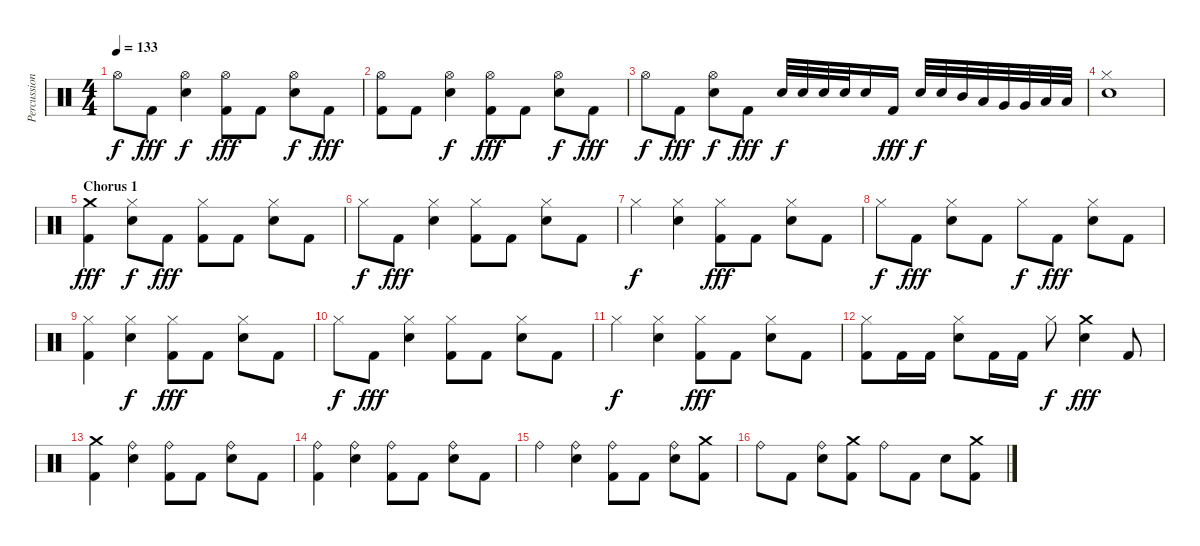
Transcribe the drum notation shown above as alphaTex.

\track ("Percussion" "Percussion") {instrument percussion}
\staff {score}
\articulation defaults
\ts (4 4)
\tempo 133
\clef neutral
\ks c "Hi-Hat (open)".8{dy f} "Kick (hit) 2".8{dy fff}
("Hi-Hat (open)" "Electric Snare (hit)").4{dy f} ("Hi-Hat (open)" "Kick (hit) 2").8{dy fff} "Kick (hit) 2".8 ("Hi-Hat (open)" "Electric Snare (hit)").8{dy f} "Kick (hit) 2".8{dy fff} |
("Hi-Hat (open)" "Kick (hit) 2").8 "Kick (hit) 2".8 ("Hi-Hat (open)" "Electric Snare (hit)").4{dy f} ("Hi-Hat (open)" "Kick (hit) 2").8{dy fff} "Kick (hit) 2".8 ("Hi-Hat (open)" "Electric Snare (hit)").8{dy f} "Kick (hit) 2".8{dy fff} |
"Hi-Hat (open)".8{dy f} "Kick (hit) 2".8{dy fff} ("Hi-Hat (open)" "Electric Snare (hit)").8{dy f} "Kick (hit) 2".8{dy fff} "Electric Snare (hit)".32{dy f} "Electric Snare (hit)".32 "Electric Snare (hit)".32 "Electric Snare (hit)".32 "Electric Snare (hit)".16 "Kick (hit) 2".16{dy fff} "Electric Snare (hit)".32{dy f} "Electric Snare (hit)".32 "Mid Tom (hit)".32 "Low Tom (hit)".32 "Very Low Tom (hit)".32 "Very Low Tom (hit)".32 "Low Floor Tom (hit)".32 "Low Floor Tom (hit)".32 |
("Hi-Hat (closed)" "Electric Snare (hit)").1 |
\section ("" "Chorus 1")
("Crash medium (hit)" "Kick (hit) 2").4{dy fff} ("Hi-Hat (closed)" "Electric Snare (hit)").8{dy f} "Kick (hit) 2".8{dy fff} ("Hi-Hat (closed)" "Kick (hit) 2").8 "Kick (hit) 2".8 ("Hi-Hat (closed)" "Electric Snare (hit)").8 "Kick (hit) 2".8 |
"Hi-Hat (closed)".8{dy f} "Kick (hit) 2".8{dy fff} ("Hi-Hat (closed)" "Electric Snare (hit)").4 ("Hi-Hat (closed)" "Kick (hit) 2").8 "Kick (hit) 2".8 ("Hi-Hat (closed)" "Electric Snare (hit)").8 "Kick (hit) 2".8 |
"Hi-Hat (closed)".4{dy f} ("Hi-Hat (closed)" "Electric Snare (hit)").4 ("Hi-Hat (closed)" "Kick (hit) 2").8{dy fff} "Kick (hit) 2".8 ("Hi-Hat (closed)" "Electric Snare (hit)").8 "Kick (hit) 2".8 |
"Hi-Hat (closed)".8{dy f} "Kick (hit) 2".8{dy fff} ("Hi-Hat (closed)" "Electric Snare (hit)").8 "Kick (hit) 2".8 "Hi-Hat (closed)".8{dy f} "Kick (hit) 2".8{dy fff} ("Hi-Hat (closed)" "Electric Snare (hit)").8 "Kick (hit) 2".8 |
("Hi-Hat (closed)" "Kick (hit) 2").4 ("Hi-Hat (closed)" "Electric Snare (hit)").4{dy f} ("Hi-Hat (closed)" "Kick (hit) 2").8{dy fff} "Kick (hit) 2".8 ("Hi-Hat (closed)" "Electric Snare (hit)").8 "Kick (hit) 2".8 |
"Hi-Hat (closed)".8{dy f} "Kick (hit) 2".8{dy fff} ("Hi-Hat (closed)" "Electric Snare (hit)").4 ("Hi-Hat (closed)" "Kick (hit) 2").8 "Kick (hit) 2".8 ("Hi-Hat (closed)" "Electric Snare (hit)").8 "Kick (hit) 2".8 |
"Hi-Hat (closed)".4{dy f} ("Hi-Hat (closed)" "Electric Snare (hit)").4 ("Hi-Hat (closed)" "Kick (hit) 2").8{dy fff} "Kick (hit) 2".8 ("Hi-Hat (closed)" "Electric Snare (hit)").8 "Kick (hit) 2".8 |
("Hi-Hat (closed)" "Kick (hit) 2").8 "Kick (hit) 2".16 "Kick (hit) 2".16 ("Hi-Hat (closed)" "Electric Snare (hit)").8 "Kick (hit) 2".16 "Kick (hit) 2".16 "Hi-Hat (closed)".8{dy f} ("Crash medium (hit)" "Electric Snare (hit)").4{dy fff} "Kick (hit) 2".8 |
("Crash medium (hit)" "Kick (hit) 2").4 ("Ride (bell)" "Electric Snare (hit)").4 ("Ride (bell)" "Kick (hit) 2").8 "Kick (hit) 2".8 ("Ride (bell)" "Electric Snare (hit)").8 "Kick (hit) 2".8 |
("Ride (bell)" "Kick (hit) 2").4 ("Ride (bell)" "Electric Snare (hit)").4 ("Ride (bell)" "Kick (hit) 2").8 "Kick (hit) 2".8 ("Ride (bell)" "Electric Snare (hit)").8 "Kick (hit) 2".8 |
"Ride (bell)".4 ("Ride (bell)" "Electric Snare (hit)").4 ("Ride (bell)" "Kick (hit) 2").8 "Kick (hit) 2".8 ("Ride (bell)" "Electric Snare (hit)").8 ("Crash medium (hit)" "Kick (hit) 2").8 |
"Ride (bell)".8 "Kick (hit) 2".8 ("Ride (bell)" "Electric Snare (hit)").8 ("Crash medium (hit)" "Kick (hit) 2").8 "Ride (bell)".8 "Kick (hit) 2".8 "Electric Snare (hit)".8 ("Crash medium (hit)" "Kick (hit) 2").8
